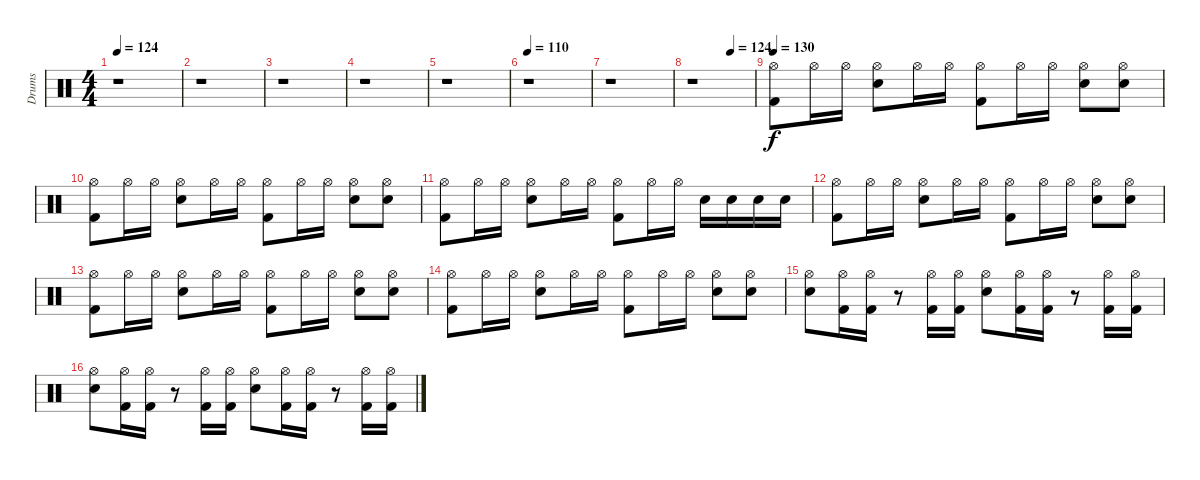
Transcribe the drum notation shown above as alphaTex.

\track ("Drums" "Drums") {instrument percussion}
\staff {score}
\articulation defaults
\ts (4 4)
\tempo 124
\clef neutral
\ks c
r.1{dy f} |
r.1 |
r.1 |
r.1 |
r.1 |
\tempo 110
r.1 |
r.1 |
\tempo (124 0.625)
r.1 |
\tempo 130
("Hi-Hat (open)" "Kick (hit) 2").8 "Hi-Hat (open)".16 "Hi-Hat (open)".16 ("Hi-Hat (open)" "Snare (hit) 2").8 "Hi-Hat (open)".16 "Hi-Hat (open)".16 ("Hi-Hat (open)" "Kick (hit) 2").8 "Hi-Hat (open)".16 "Hi-Hat (open)".16 ("Hi-Hat (open)" "Snare (hit) 2").8 ("Hi-Hat (open)" "Snare (hit) 2").8 |
("Hi-Hat (open)" "Kick (hit) 2").8 "Hi-Hat (open)".16 "Hi-Hat (open)".16 ("Hi-Hat (open)" "Snare (hit) 2").8 "Hi-Hat (open)".16 "Hi-Hat (open)".16 ("Hi-Hat (open)" "Kick (hit) 2").8 "Hi-Hat (open)".16 "Hi-Hat (open)".16 ("Hi-Hat (open)" "Snare (hit) 2").8 ("Hi-Hat (open)" "Snare (hit) 2").8 |
("Hi-Hat (open)" "Kick (hit) 2").8 "Hi-Hat (open)".16 "Hi-Hat (open)".16 ("Hi-Hat (open)" "Snare (hit) 2").8 "Hi-Hat (open)".16 "Hi-Hat (open)".16 ("Hi-Hat (open)" "Kick (hit) 2").8 "Hi-Hat (open)".16 "Hi-Hat (open)".16 "Snare (hit) 2".16 "Snare (hit) 2".16 "Snare (hit) 2".16 "Snare (hit) 2".16 |
("Hi-Hat (open)" "Kick (hit) 2").8 "Hi-Hat (open)".16 "Hi-Hat (open)".16 ("Hi-Hat (open)" "Snare (hit) 2").8 "Hi-Hat (open)".16 "Hi-Hat (open)".16 ("Hi-Hat (open)" "Kick (hit) 2").8 "Hi-Hat (open)".16 "Hi-Hat (open)".16 ("Hi-Hat (open)" "Snare (hit) 2").8 ("Hi-Hat (open)" "Snare (hit) 2").8 |
("Hi-Hat (open)" "Kick (hit) 2").8 "Hi-Hat (open)".16 "Hi-Hat (open)".16 ("Hi-Hat (open)" "Snare (hit) 2").8 "Hi-Hat (open)".16 "Hi-Hat (open)".16 ("Hi-Hat (open)" "Kick (hit) 2").8 "Hi-Hat (open)".16 "Hi-Hat (open)".16 ("Hi-Hat (open)" "Snare (hit) 2").8 ("Hi-Hat (open)" "Snare (hit) 2").8 |
("Hi-Hat (open)" "Kick (hit) 2").8 "Hi-Hat (open)".16 "Hi-Hat (open)".16 ("Hi-Hat (open)" "Snare (hit) 2").8 "Hi-Hat (open)".16 "Hi-Hat (open)".16 ("Hi-Hat (open)" "Kick (hit) 2").8 "Hi-Hat (open)".16 "Hi-Hat (open)".16 ("Hi-Hat (open)" "Snare (hit) 2").8 ("Hi-Hat (open)" "Snare (hit) 2").8 |
("Hi-Hat (open)" "Snare (hit) 2").8 ("Hi-Hat (open)" "Kick (hit) 2").16 ("Hi-Hat (open)" "Kick (hit) 2").16 r.8 ("Hi-Hat (open)" "Kick (hit) 2").16 ("Hi-Hat (open)" "Kick (hit) 2").16 ("Hi-Hat (open)" "Snare (hit) 2").8 ("Hi-Hat (open)" "Kick (hit) 2").16 ("Hi-Hat (open)" "Kick (hit) 2").16 r.8 ("Hi-Hat (open)" "Kick (hit) 2").16 ("Hi-Hat (open)" "Kick (hit) 2").16 |
("Hi-Hat (open)" "Snare (hit) 2").8 ("Hi-Hat (open)" "Kick (hit) 2").16 ("Hi-Hat (open)" "Kick (hit) 2").16 r.8 ("Hi-Hat (open)" "Kick (hit) 2").16 ("Hi-Hat (open)" "Kick (hit) 2").16 ("Hi-Hat (open)" "Snare (hit) 2").8 ("Hi-Hat (open)" "Kick (hit) 2").16 ("Hi-Hat (open)" "Kick (hit) 2").16 r.8 ("Hi-Hat (open)" "Kick (hit) 2").16 ("Hi-Hat (open)" "Kick (hit) 2").16
